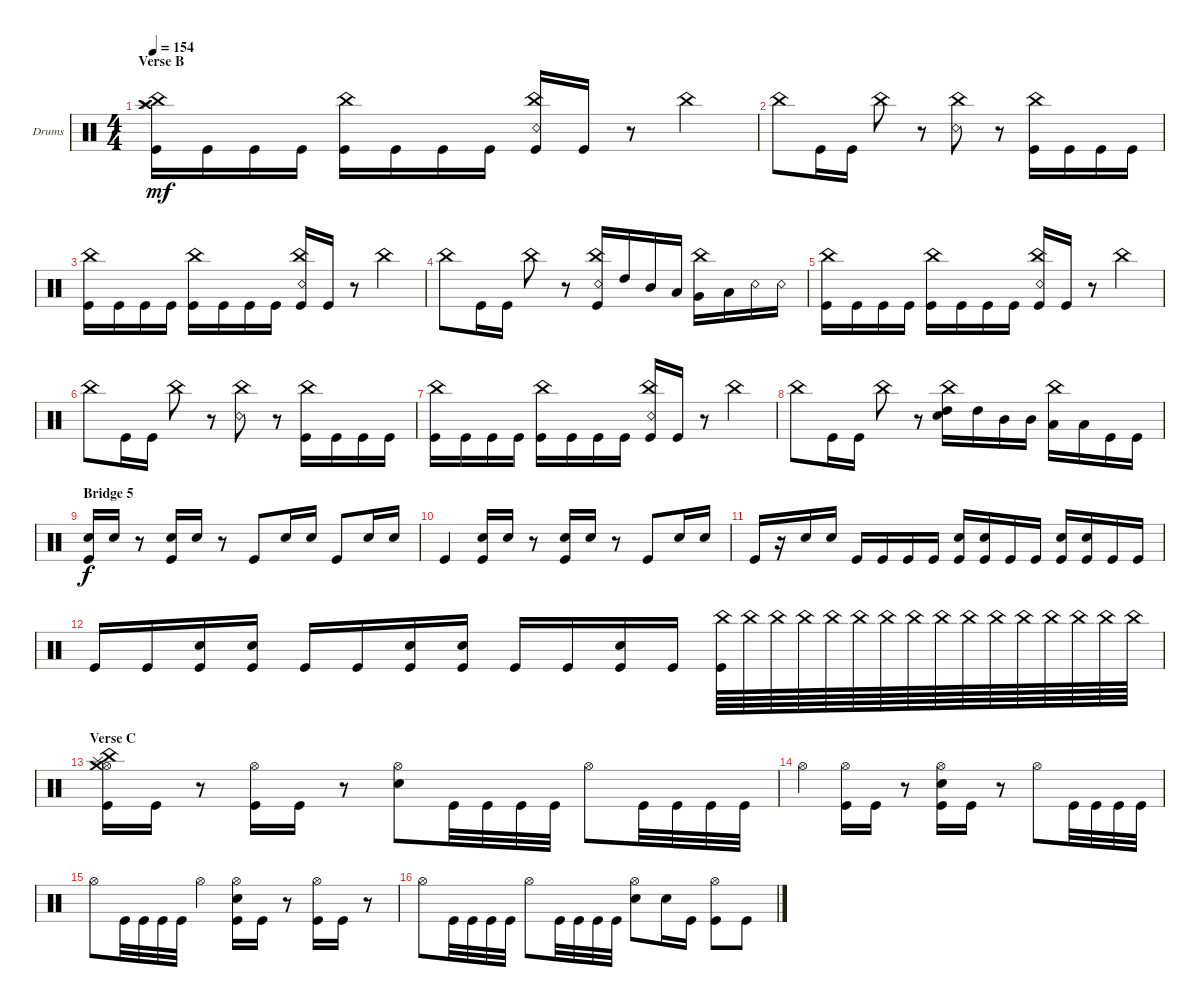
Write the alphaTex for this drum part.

\defaultSystemsLayout 4
\bracketExtendMode groupsimilarinstruments
\firstSystemTrackNameOrientation horizontal
\otherSystemsTrackNameOrientation horizontal
\track ("Drums" "Drums") {instrument percussion}
\staff {score}
\articulation defaults
\ts (4 4)
\section ("" "Verse B")
\tempo 154
\clef neutral
\ks c
("Kick (hit)" "Splash (hit)" "China (hit)" "Crash high (hit)").16{dy mf} "Kick (hit)".16 "Kick (hit)".16 "Kick (hit)".16 ("Kick (hit)" "China (hit)").16 "Kick (hit)".16 "Kick (hit)".16 "Kick (hit)".16 ("Kick (hit)" "Snare (rim shot)" "China (hit)").16 "Kick (hit)".16 r.8 "China (hit)".4 |
"China (hit)".8 "Kick (hit)".16 "Kick (hit)".16 "China (hit)".8 r.8 ("Snare (rim shot)" "China (hit)").8 r.8 ("Kick (hit)" "China (hit)").16 "Kick (hit)".16 "Kick (hit)".16 "Kick (hit)".16 |
("Kick (hit)" "China (hit)").16 "Kick (hit)".16 "Kick (hit)".16 "Kick (hit)".16 ("Kick (hit)" "China (hit)").16 "Kick (hit)".16 "Kick (hit)".16 "Kick (hit)".16 ("Kick (hit)" "Snare (rim shot)" "China (hit)").16 "Kick (hit)".16 r.8 "China (hit)".4 |
"China (hit)".8 "Kick (hit)".16 "Kick (hit)".16 "China (hit)".8 r.8 ("Snare (rim shot)" "China (hit)" "Kick (hit)").16 "High Tom (hit)".16 "Mid Tom (hit)".16 "Low Tom (hit)".16 ("Very Low Tom (hit)" "China (hit)").16 "Low Tom (hit)".16 "Snare (rim shot)".16 "Snare (rim shot)".16 |
("Kick (hit)" "China (hit)").16 "Kick (hit)".16 "Kick (hit)".16 "Kick (hit)".16 ("Kick (hit)" "China (hit)").16 "Kick (hit)".16 "Kick (hit)".16 "Kick (hit)".16 ("Kick (hit)" "Snare (rim shot)" "China (hit)").16 "Kick (hit)".16 r.8 "China (hit)".4 |
"China (hit)".8 "Kick (hit)".16 "Kick (hit)".16 "China (hit)".8 r.8 ("Snare (rim shot)" "China (hit)").8 r.8 ("Kick (hit)" "China (hit)").16 "Kick (hit)".16 "Kick (hit)".16 "Kick (hit)".16 |
("Kick (hit)" "China (hit)").16 "Kick (hit)".16 "Kick (hit)".16 "Kick (hit)".16 ("Kick (hit)" "China (hit)").16 "Kick (hit)".16 "Kick (hit)".16 "Kick (hit)".16 ("Kick (hit)" "Snare (rim shot)" "China (hit)").16 "Kick (hit)".16 r.8 "China (hit)".4 |
"China (hit)".8 "Kick (hit)".16 "Kick (hit)".16 "China (hit)".8 r.8 ("High Tom (hit)" "Snare (hit) 2" "China (hit)").16 "High Tom (hit)".16 "Mid Tom (hit)".16 "Mid Tom (hit)".16 ("Low Tom (hit)" "China (hit)").16 "Low Tom (hit)".16 "Kick (hit)".16 "Kick (hit)".16 |
\section ("" "Bridge 5")
("Snare (hit) 2" "Kick (hit)").16{dy f} "Snare (hit) 2".16 r.8 ("Snare (hit) 2" "Kick (hit)").16 "Snare (hit) 2".16 r.8 "Kick (hit)".8 "Snare (hit) 2".16 "Snare (hit) 2".16 "Kick (hit)".8 "Snare (hit) 2".16 "Snare (hit) 2".16 |
"Kick (hit)".4 ("Kick (hit)" "Snare (hit) 2").16 "Snare (hit) 2".16 r.8 ("Kick (hit)" "Snare (hit) 2").16 "Snare (hit) 2".16 r.8 "Kick (hit)".8 "Snare (hit) 2".16 "Snare (hit) 2".16 |
"Kick (hit)".16 r.16 "Snare (hit) 2".16 "Snare (hit) 2".16 "Kick (hit)".16 "Kick (hit)".16 "Kick (hit)".16 "Kick (hit)".16 ("Kick (hit)" "Snare (hit) 2").16 ("Snare (hit) 2" "Kick (hit)").16 "Kick (hit)".16 "Kick (hit)".16 ("Kick (hit)" "Snare (hit) 2").16 ("Snare (hit) 2" "Kick (hit)").16 "Kick (hit)".16 "Kick (hit)".16 |
"Kick (hit)".16 "Kick (hit)".16 ("Snare (hit) 2" "Kick (hit)").16 ("Snare (hit) 2" "Kick (hit)").16 "Kick (hit)".16 "Kick (hit)".16 ("Snare (hit) 2" "Kick (hit)").16 ("Snare (hit) 2" "Kick (hit)").16 "Kick (hit)".16 "Kick (hit)".16 ("Snare (hit) 2" "Kick (hit)").16 "Kick (hit)".16 ("Kick (hit)" "China (hit)").64 "China (hit)".64 "China (hit)".64 "China (hit)".64 "China (hit)".64 "China (hit)".64 "China (hit)".64 "China (hit)".64 "China (hit)".64 "China (hit)".64 "China (hit)".64 "China (hit)".64 "China (hit)".64 "China (hit)".64 "China (hit)".64 "China (hit)".64 |
\section ("" "Verse C")
("Hi-Hat (open)" "Kick (hit)" "Splash (hit)" "China (hit)" "Crash medium (hit)").16 "Kick (hit)".16 r.8 ("Kick (hit)" "Hi-Hat (open)").16 "Kick (hit)".16 r.8 ("Hi-Hat (open)" "Snare (hit) 2").8 "Kick (hit)".32 "Kick (hit)".32 "Kick (hit)".32 "Kick (hit)".32 "Hi-Hat (open)".8 "Kick (hit)".32 "Kick (hit)".32 "Kick (hit)".32 "Kick (hit)".32 |
"Hi-Hat (open)".4 ("Kick (hit)" "Hi-Hat (open)").16 "Kick (hit)".16 r.8 ("Kick (hit)" "Hi-Hat (open)" "Snare (hit) 2").16 "Kick (hit)".16 r.8 "Hi-Hat (open)".8 "Kick (hit)".32 "Kick (hit)".32 "Kick (hit)".32 "Kick (hit)".32 |
"Hi-Hat (open)".8 "Kick (hit)".32 "Kick (hit)".32 "Kick (hit)".32 "Kick (hit)".32 "Hi-Hat (open)".4 ("Kick (hit)" "Hi-Hat (open)" "Snare (hit) 2").16 "Kick (hit)".16 r.8 ("Kick (hit)" "Hi-Hat (open)").16 "Kick (hit)".16 r.8 |
"Hi-Hat (open)".8 "Kick (hit)".32 "Kick (hit)".32 "Kick (hit)".32 "Kick (hit)".32 "Hi-Hat (open)".8 "Kick (hit)".32 "Kick (hit)".32 "Kick (hit)".32 "Kick (hit)".32 ("Hi-Hat (open)" "Snare (hit) 2").8 "Snare (hit) 2".16 "Kick (hit)".16 ("Kick (hit)" "Hi-Hat (open)").8 "Kick (hit)".8
